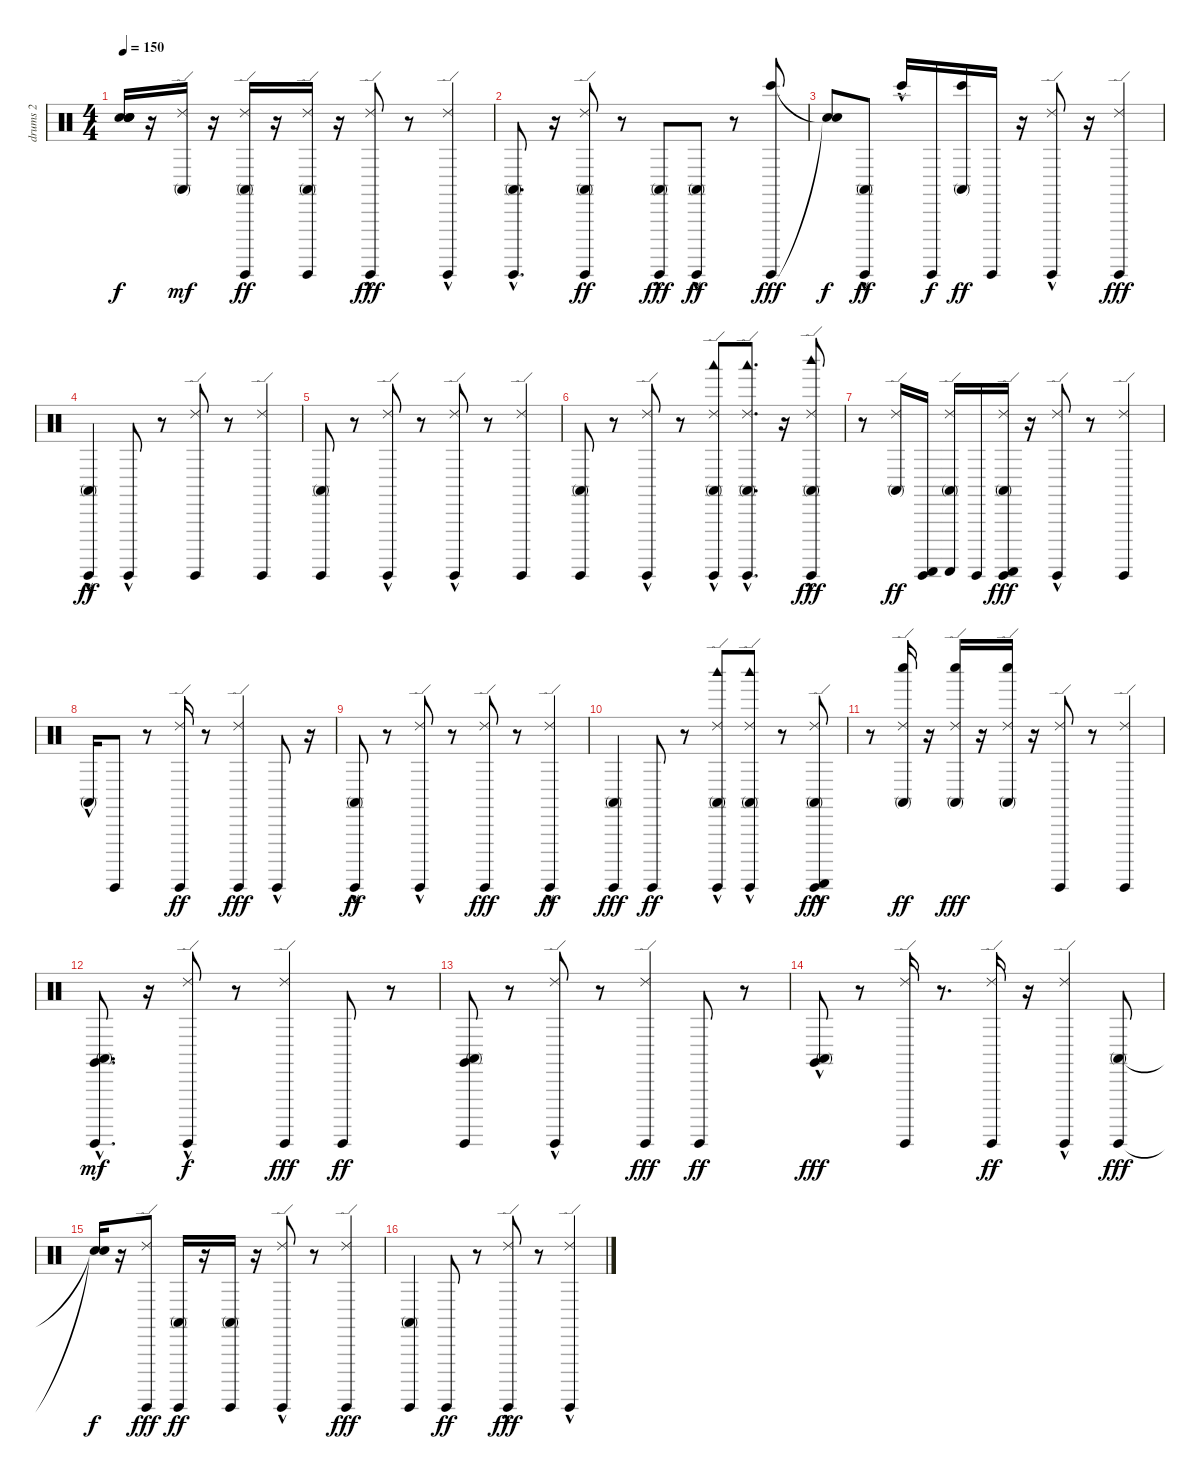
\track ("drums 2" "drums 2") {instrument percussion}
\staff {score}
\articulation defaults
\ts (4 4)
\tempo 150
\clef neutral
\ks c
("Snare (hit)"{t} "Snare (hit)"{t} "Snare (hit)"{t} "Snare (hit)"{t}).16{dy f} r.16 ("Conga high (mute)" "Ride (edge) 2").16{dy mf} r.16 ("Ride (edge) 2" "Conga high (mute)" "Guiro (hit)").16{dy ff} r.16 ("Ride (edge) 2" "Conga high (mute)" "Guiro (hit)").16 r.16 ("Ride (edge) 2"{hac} "Guiro (hit)").8{dy fff} r.8 ("Guiro (hit)" "Ride (edge) 2"{hac}).4 |
("Conga high (mute)"{hac} "Guiro (hit)").8{d} r.16 ("Guiro (hit)" "Conga high (mute)" "Ride (edge) 2").8{dy ff} r.8 ("Guiro (hit)"{hac} "Conga high (mute)").8{dy fff} ("Conga high (mute)"{hac} "Guiro (hit)").8{dy ff} r.8 ("Bongo High (hit)" "Guiro (hit)").8{dy fff} |
("Snare (hit)"{t} "Snare (hit)"{t}).8{dy f} ("Guiro (hit)"{hac} "Conga high (mute)"{hac}).8{dy ff} "Bongo High (hit)"{hac}.16 "Guiro (hit)".16{dy f} ("Bongo High (hit)" "Conga high (mute)").16{dy ff} "Guiro (hit)".16 r.16 ("Ride (edge) 2"{hac} "Guiro (hit)"{hac}).8 r.16 ("Guiro (hit)" "Ride (edge) 2").4{dy fff} |
("Conga high (mute)"{hac} "Guiro (hit)").4{dy ff} "Guiro (hit)"{hac}.8 r.8 ("Guiro (hit)" "Ride (edge) 2").8 r.8 ("Guiro (hit)" "Ride (edge) 2").4 |
("Conga high (mute)" "Guiro (hit)").8 r.8 ("Guiro (hit)" "Ride (edge) 2"{hac}).8 r.8 ("Guiro (hit)"{hac} "Ride (edge) 2").8 r.8 ("Guiro (hit)" "Ride (edge) 2").4 |
("Conga high (mute)" "Guiro (hit)").8 r.8 ("Ride (edge) 2"{hac} "Guiro (hit)").8 r.8 ("Guiro (hit)"{hac} "Conga high (mute)" "Ride (edge) 2" "Woodblock low (hit)").8 ("Guiro (hit)"{hac} "Conga high (mute)" "Ride (edge) 2" "Woodblock low (hit)").8{d} r.16 ("Conga high (mute)" "Ride (edge) 2" "Guiro (hit)"{hac} "Woodblock high (hit)"{hac}).8{dy fff} |
r.8 ("Conga high (mute)" "Ride (edge) 2").16{dy ff} ("Guiro (scrap-return)" "Guiro (hit)").16 ("Ride (edge) 2" "Conga high (mute)" "Guiro (scrap-return)").16 "Guiro (hit)".16 ("Guiro (scrap-return)" "Conga high (mute)" "Ride (edge) 2" "Guiro (hit)").16{dy fff} r.16 ("Guiro (hit)"{hac} "Ride (edge) 2").8 r.8 ("Guiro (hit)" "Ride (edge) 2").4 |
"Conga high (mute)"{hac}.16 "Guiro (hit)".8 r.8 ("Ride (edge) 2" "Guiro (hit)").16{dy ff} r.8 ("Ride (edge) 2" "Guiro (hit)").4{dy fff} "Guiro (hit)"{hac}.8 r.16 |
("Guiro (hit)"{hac} "Conga high (mute)").8{dy ff} r.8 ("Ride (edge) 2"{hac} "Guiro (hit)"{hac}).8 r.8 ("Guiro (hit)" "Ride (edge) 2").8{dy fff} r.8 ("Guiro (hit)" "Ride (edge) 2"{hac}).4{dy ff} |
("Conga high (mute)" "Guiro (hit)").4{dy fff} "Guiro (hit)".8{dy ff} r.8 ("Guiro (hit)"{hac} "Ride (edge) 2" "Woodblock high (hit)" "Conga high (mute)").8 ("Guiro (hit)" "Conga high (mute)"{hac} "Ride (edge) 2"{hac} "Woodblock high (hit)"{hac}).8 r.8 ("Conga high (mute)" "Ride (edge) 2"{hac} "Guiro (hit)" "Guiro (scrap-return)"{hac}).8{dy fff} |
r.8 ("Conga high (mute)" "Whistle low (hit)" "Ride (edge) 2").16{dy ff} r.16 ("Ride (edge) 2" "Whistle low (hit)" "Conga high (mute)").16{dy fff} r.16 ("Ride (edge) 2" "Conga high (mute)" "Whistle low (hit)").16 r.16 ("Guiro (hit)" "Ride (edge) 2").8 r.8 ("Guiro (hit)" "Ride (edge) 2").4 |
("Claves (hit)"{hac} "Conga high (mute)"{hac} "Guiro (hit)").8{d dy mf} r.16 ("Guiro (hit)"{hac} "Ride (edge) 2").8{dy f} r.8 ("Guiro (hit)" "Ride (edge) 2").4{dy fff} "Guiro (hit)".8{dy ff} r.8 |
("Claves (hit)" "Conga high (mute)" "Guiro (hit)").8 r.8 ("Guiro (hit)"{hac} "Ride (edge) 2").8 r.8 ("Ride (edge) 2" "Guiro (hit)").4{dy fff} "Guiro (hit)".8{dy ff} r.8 |
("Claves (hit)"{hac} "Conga high (mute)").8{dy fff} r.8 ("Guiro (hit)" "Ride (edge) 2").16 r.8{d} ("Ride (edge) 2" "Guiro (hit)").16{dy ff} r.16 ("Ride (edge) 2"{hac} "Guiro (hit)").4 ("Guiro (hit)" "Conga high (mute)").8{dy fff} |
("Snare (hit)"{t} "Snare (hit)"{t}).16{dy f} r.16 ("Guiro (hit)" "Ride (edge) 2").8{dy fff} ("Conga high (mute)" "Guiro (hit)").16{dy ff} r.16 ("Guiro (hit)" "Conga high (mute)").16 r.16 ("Ride (edge) 2"{hac} "Guiro (hit)"{hac}).8 r.8 ("Guiro (hit)" "Ride (edge) 2").4{dy fff} |
("Conga high (mute)" "Guiro (hit)").4 "Guiro (hit)".8{dy ff} r.8 ("Guiro (hit)"{hac} "Ride (edge) 2"{hac}).8{dy fff} r.8 ("Guiro (hit)" "Ride (edge) 2"{hac}).4
